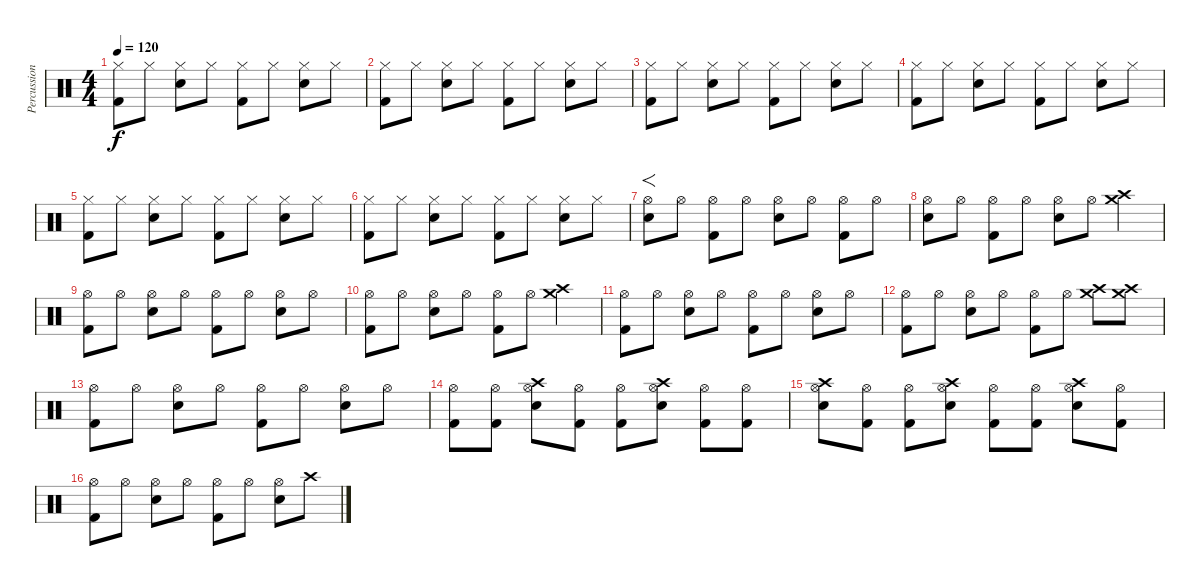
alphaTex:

\track ("Percussion" "Percussion") {instrument percussion}
\staff {score}
\articulation defaults
\ts (4 4)
\tempo 120
\clef neutral
\ks c
("Hi-Hat (closed)" "Kick (hit) 2").8{dy f} "Hi-Hat (closed)".8 ("Hi-Hat (closed)" "Electric Snare (hit)").8 "Hi-Hat (closed)".8 ("Hi-Hat (closed)" "Kick (hit) 2").8 "Hi-Hat (closed)".8 ("Hi-Hat (closed)" "Electric Snare (hit)").8 "Hi-Hat (closed)".8 |
("Hi-Hat (closed)" "Kick (hit) 2").8 "Hi-Hat (closed)".8 ("Hi-Hat (closed)" "Electric Snare (hit)").8 "Hi-Hat (closed)".8 ("Hi-Hat (closed)" "Kick (hit) 2").8 "Hi-Hat (closed)".8 ("Hi-Hat (closed)" "Electric Snare (hit)").8 "Hi-Hat (closed)".8 |
("Hi-Hat (closed)" "Kick (hit) 2").8 "Hi-Hat (closed)".8 ("Hi-Hat (closed)" "Electric Snare (hit)").8 "Hi-Hat (closed)".8 ("Hi-Hat (closed)" "Kick (hit) 2").8 "Hi-Hat (closed)".8 ("Hi-Hat (closed)" "Electric Snare (hit)").8 "Hi-Hat (closed)".8 |
("Hi-Hat (closed)" "Kick (hit) 2").8 "Hi-Hat (closed)".8 ("Hi-Hat (closed)" "Electric Snare (hit)").8 "Hi-Hat (closed)".8 ("Hi-Hat (closed)" "Kick (hit) 2").8 "Hi-Hat (closed)".8 ("Hi-Hat (closed)" "Electric Snare (hit)").8 "Hi-Hat (closed)".8 |
("Hi-Hat (closed)" "Kick (hit) 2").8 "Hi-Hat (closed)".8 ("Hi-Hat (closed)" "Electric Snare (hit)").8 "Hi-Hat (closed)".8 ("Hi-Hat (closed)" "Kick (hit) 2").8 "Hi-Hat (closed)".8 ("Hi-Hat (closed)" "Electric Snare (hit)").8 "Hi-Hat (closed)".8 |
("Hi-Hat (closed)" "Kick (hit) 2").8 "Hi-Hat (closed)".8 ("Hi-Hat (closed)" "Electric Snare (hit)").8 "Hi-Hat (closed)".8 ("Hi-Hat (closed)" "Kick (hit) 2").8 "Hi-Hat (closed)".8 ("Hi-Hat (closed)" "Electric Snare (hit)").8 "Hi-Hat (closed)".8 |
("Hi-Hat (open)" "Electric Snare (hit)").8{f} "Hi-Hat (open)".8 ("Hi-Hat (open)" "Kick (hit) 2").8 "Hi-Hat (open)".8 ("Hi-Hat (open)" "Electric Snare (hit)").8 "Hi-Hat (open)".8 ("Hi-Hat (open)" "Kick (hit) 2").8 "Hi-Hat (open)".8 |
("Hi-Hat (open)" "Electric Snare (hit)").8 "Hi-Hat (open)".8 ("Hi-Hat (open)" "Kick (hit) 2").8 "Hi-Hat (open)".8 ("Hi-Hat (open)" "Electric Snare (hit)").8 "Hi-Hat (open)".8 ("Crash high (hit)" "Crash medium (hit)").4 |
("Hi-Hat (open)" "Kick (hit) 2").8 "Hi-Hat (open)".8 ("Hi-Hat (open)" "Electric Snare (hit)").8 "Hi-Hat (open)".8 ("Hi-Hat (open)" "Kick (hit) 2").8 "Hi-Hat (open)".8 ("Hi-Hat (open)" "Electric Snare (hit)").8 "Hi-Hat (open)".8 |
("Hi-Hat (open)" "Kick (hit) 2").8 "Hi-Hat (open)".8 ("Hi-Hat (open)" "Electric Snare (hit)").8 "Hi-Hat (open)".8 ("Hi-Hat (open)" "Kick (hit) 2").8 "Hi-Hat (open)".8 ("Crash high (hit)" "Crash medium (hit)").4 |
("Hi-Hat (open)" "Kick (hit) 2").8 "Hi-Hat (open)".8 ("Hi-Hat (open)" "Electric Snare (hit)").8 "Hi-Hat (open)".8 ("Hi-Hat (open)" "Kick (hit) 2").8 "Hi-Hat (open)".8 ("Hi-Hat (open)" "Electric Snare (hit)").8 "Hi-Hat (open)".8 |
("Hi-Hat (open)" "Kick (hit) 2").8 "Hi-Hat (open)".8 ("Hi-Hat (open)" "Electric Snare (hit)").8 "Hi-Hat (open)".8 ("Hi-Hat (open)" "Kick (hit) 2").8 "Hi-Hat (open)".8 ("Crash high (hit)" "Crash medium (hit)").8 ("Crash high (hit)" "Crash medium (hit)").8 |
("Hi-Hat (open)" "Kick (hit) 2").8 "Hi-Hat (open)".8 ("Hi-Hat (open)" "Electric Snare (hit)").8 "Hi-Hat (open)".8 ("Hi-Hat (open)" "Kick (hit) 2").8 "Hi-Hat (open)".8 ("Hi-Hat (open)" "Electric Snare (hit)").8 "Hi-Hat (open)".8 |
("Hi-Hat (open)" "Kick (hit) 2").8 ("Hi-Hat (open)" "Kick (hit) 2").8 ("Hi-Hat (open)" "Electric Snare (hit)" "Crash high (hit)").8 ("Hi-Hat (open)" "Kick (hit) 2").8 ("Hi-Hat (open)" "Kick (hit) 2").8 ("Hi-Hat (open)" "Electric Snare (hit)" "Crash high (hit)").8 ("Hi-Hat (open)" "Kick (hit) 2").8 ("Hi-Hat (open)" "Kick (hit) 2").8 |
("Hi-Hat (open)" "Electric Snare (hit)" "Crash high (hit)").8 ("Hi-Hat (open)" "Kick (hit) 2").8 ("Hi-Hat (open)" "Kick (hit) 2").8 ("Hi-Hat (open)" "Electric Snare (hit)" "Crash high (hit)").8 ("Hi-Hat (open)" "Kick (hit) 2").8 ("Hi-Hat (open)" "Kick (hit) 2").8 ("Hi-Hat (open)" "Electric Snare (hit)" "Crash high (hit)").8 ("Hi-Hat (open)" "Kick (hit) 2").8 |
("Hi-Hat (open)" "Kick (hit) 2").8 "Hi-Hat (open)".8 ("Hi-Hat (open)" "Electric Snare (hit)").8 "Hi-Hat (open)".8 ("Hi-Hat (open)" "Kick (hit) 2").8 "Hi-Hat (open)".8 ("Hi-Hat (open)" "Electric Snare (hit)").8 "Crash high (hit)".8
